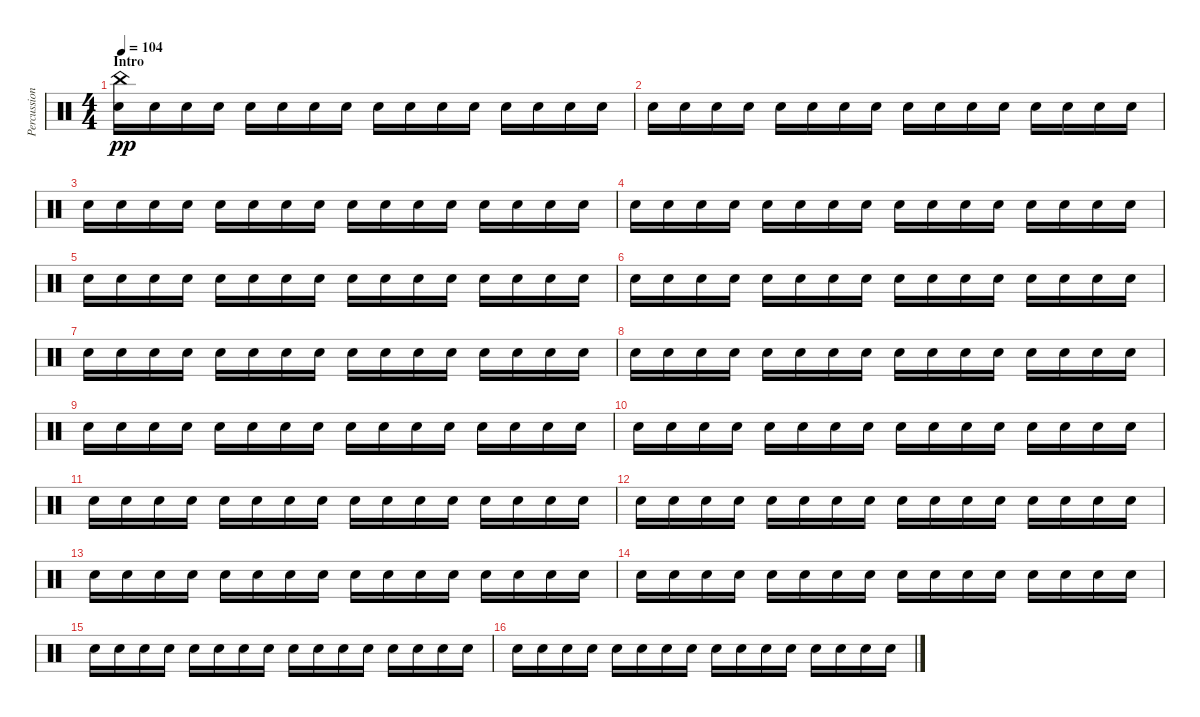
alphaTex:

\track ("Percussion" "Percussion") {instrument percussion}
\staff {score}
\articulation defaults
\ts (4 4)
\section ("" "Intro")
\tempo 104
\clef neutral
\ks c
("Snare (hit) 2" "China (hit)").16{dy pp volume 12} "Snare (hit) 2".16 "Snare (hit) 2".16 "Snare (hit) 2".16 "Snare (hit) 2".16 "Snare (hit) 2".16 "Snare (hit) 2".16 "Snare (hit) 2".16 "Snare (hit) 2".16 "Snare (hit) 2".16 "Snare (hit) 2".16 "Snare (hit) 2".16 "Snare (hit) 2".16 "Snare (hit) 2".16 "Snare (hit) 2".16 "Snare (hit) 2".16 |
"Snare (hit) 2".16 "Snare (hit) 2".16 "Snare (hit) 2".16 "Snare (hit) 2".16 "Snare (hit) 2".16 "Snare (hit) 2".16 "Snare (hit) 2".16 "Snare (hit) 2".16 "Snare (hit) 2".16 "Snare (hit) 2".16 "Snare (hit) 2".16 "Snare (hit) 2".16 "Snare (hit) 2".16 "Snare (hit) 2".16 "Snare (hit) 2".16 "Snare (hit) 2".16 |
"Snare (hit) 2".16 "Snare (hit) 2".16 "Snare (hit) 2".16 "Snare (hit) 2".16 "Snare (hit) 2".16 "Snare (hit) 2".16 "Snare (hit) 2".16 "Snare (hit) 2".16 "Snare (hit) 2".16 "Snare (hit) 2".16 "Snare (hit) 2".16 "Snare (hit) 2".16 "Snare (hit) 2".16 "Snare (hit) 2".16 "Snare (hit) 2".16 "Snare (hit) 2".16 |
"Snare (hit) 2".16 "Snare (hit) 2".16 "Snare (hit) 2".16 "Snare (hit) 2".16 "Snare (hit) 2".16 "Snare (hit) 2".16 "Snare (hit) 2".16 "Snare (hit) 2".16 "Snare (hit) 2".16 "Snare (hit) 2".16 "Snare (hit) 2".16 "Snare (hit) 2".16 "Snare (hit) 2".16 "Snare (hit) 2".16 "Snare (hit) 2".16 "Snare (hit) 2".16 |
"Snare (hit) 2".16 "Snare (hit) 2".16 "Snare (hit) 2".16 "Snare (hit) 2".16 "Snare (hit) 2".16 "Snare (hit) 2".16 "Snare (hit) 2".16 "Snare (hit) 2".16 "Snare (hit) 2".16 "Snare (hit) 2".16 "Snare (hit) 2".16 "Snare (hit) 2".16 "Snare (hit) 2".16 "Snare (hit) 2".16 "Snare (hit) 2".16 "Snare (hit) 2".16 |
"Snare (hit) 2".16 "Snare (hit) 2".16 "Snare (hit) 2".16 "Snare (hit) 2".16 "Snare (hit) 2".16 "Snare (hit) 2".16 "Snare (hit) 2".16 "Snare (hit) 2".16 "Snare (hit) 2".16 "Snare (hit) 2".16 "Snare (hit) 2".16 "Snare (hit) 2".16 "Snare (hit) 2".16 "Snare (hit) 2".16 "Snare (hit) 2".16 "Snare (hit) 2".16 |
"Snare (hit) 2".16 "Snare (hit) 2".16 "Snare (hit) 2".16 "Snare (hit) 2".16 "Snare (hit) 2".16 "Snare (hit) 2".16 "Snare (hit) 2".16 "Snare (hit) 2".16 "Snare (hit) 2".16 "Snare (hit) 2".16 "Snare (hit) 2".16 "Snare (hit) 2".16 "Snare (hit) 2".16 "Snare (hit) 2".16 "Snare (hit) 2".16 "Snare (hit) 2".16 |
"Snare (hit) 2".16 "Snare (hit) 2".16 "Snare (hit) 2".16 "Snare (hit) 2".16 "Snare (hit) 2".16 "Snare (hit) 2".16 "Snare (hit) 2".16 "Snare (hit) 2".16 "Snare (hit) 2".16 "Snare (hit) 2".16 "Snare (hit) 2".16 "Snare (hit) 2".16 "Snare (hit) 2".16 "Snare (hit) 2".16 "Snare (hit) 2".16 "Snare (hit) 2".16 |
"Snare (hit) 2".16 "Snare (hit) 2".16 "Snare (hit) 2".16 "Snare (hit) 2".16 "Snare (hit) 2".16 "Snare (hit) 2".16 "Snare (hit) 2".16 "Snare (hit) 2".16 "Snare (hit) 2".16 "Snare (hit) 2".16 "Snare (hit) 2".16 "Snare (hit) 2".16 "Snare (hit) 2".16 "Snare (hit) 2".16 "Snare (hit) 2".16 "Snare (hit) 2".16 |
"Snare (hit) 2".16 "Snare (hit) 2".16 "Snare (hit) 2".16 "Snare (hit) 2".16 "Snare (hit) 2".16 "Snare (hit) 2".16 "Snare (hit) 2".16 "Snare (hit) 2".16 "Snare (hit) 2".16 "Snare (hit) 2".16 "Snare (hit) 2".16 "Snare (hit) 2".16 "Snare (hit) 2".16 "Snare (hit) 2".16 "Snare (hit) 2".16 "Snare (hit) 2".16 |
"Snare (hit) 2".16 "Snare (hit) 2".16 "Snare (hit) 2".16 "Snare (hit) 2".16 "Snare (hit) 2".16 "Snare (hit) 2".16 "Snare (hit) 2".16 "Snare (hit) 2".16 "Snare (hit) 2".16 "Snare (hit) 2".16 "Snare (hit) 2".16 "Snare (hit) 2".16 "Snare (hit) 2".16 "Snare (hit) 2".16 "Snare (hit) 2".16 "Snare (hit) 2".16 |
"Snare (hit) 2".16 "Snare (hit) 2".16 "Snare (hit) 2".16 "Snare (hit) 2".16 "Snare (hit) 2".16 "Snare (hit) 2".16 "Snare (hit) 2".16 "Snare (hit) 2".16 "Snare (hit) 2".16 "Snare (hit) 2".16 "Snare (hit) 2".16 "Snare (hit) 2".16 "Snare (hit) 2".16 "Snare (hit) 2".16 "Snare (hit) 2".16 "Snare (hit) 2".16 |
"Snare (hit) 2".16 "Snare (hit) 2".16 "Snare (hit) 2".16 "Snare (hit) 2".16 "Snare (hit) 2".16 "Snare (hit) 2".16 "Snare (hit) 2".16 "Snare (hit) 2".16 "Snare (hit) 2".16 "Snare (hit) 2".16 "Snare (hit) 2".16 "Snare (hit) 2".16 "Snare (hit) 2".16 "Snare (hit) 2".16 "Snare (hit) 2".16 "Snare (hit) 2".16 |
"Snare (hit) 2".16 "Snare (hit) 2".16 "Snare (hit) 2".16 "Snare (hit) 2".16 "Snare (hit) 2".16 "Snare (hit) 2".16 "Snare (hit) 2".16 "Snare (hit) 2".16 "Snare (hit) 2".16 "Snare (hit) 2".16 "Snare (hit) 2".16 "Snare (hit) 2".16 "Snare (hit) 2".16 "Snare (hit) 2".16 "Snare (hit) 2".16 "Snare (hit) 2".16 |
"Snare (hit) 2".16 "Snare (hit) 2".16 "Snare (hit) 2".16 "Snare (hit) 2".16 "Snare (hit) 2".16 "Snare (hit) 2".16 "Snare (hit) 2".16 "Snare (hit) 2".16 "Snare (hit) 2".16 "Snare (hit) 2".16 "Snare (hit) 2".16 "Snare (hit) 2".16 "Snare (hit) 2".16 "Snare (hit) 2".16 "Snare (hit) 2".16 "Snare (hit) 2".16 |
"Snare (hit) 2".16 "Snare (hit) 2".16 "Snare (hit) 2".16 "Snare (hit) 2".16 "Snare (hit) 2".16 "Snare (hit) 2".16 "Snare (hit) 2".16 "Snare (hit) 2".16 "Snare (hit) 2".16 "Snare (hit) 2".16 "Snare (hit) 2".16 "Snare (hit) 2".16 "Snare (hit) 2".16 "Snare (hit) 2".16 "Snare (hit) 2".16 "Snare (hit) 2".16
